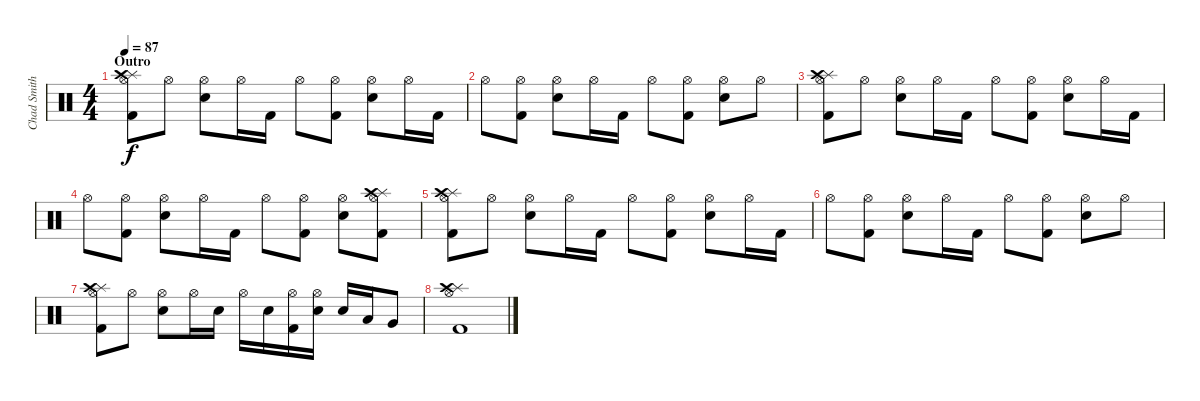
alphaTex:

\track ("Chad Smith" "Chad Smith") {instrument percussion}
\staff {score}
\articulation defaults
\ts (4 4)
\section ("" "Outro")
\tempo 87
\clef neutral
\ks c
("Splash (hit)" "Kick (hit) 2" "Hi-Hat (open)" "Crash high (hit)").8{dy f volume 14} "Hi-Hat (open)".8 ("Electric Snare (hit)" "Hi-Hat (open)").8 "Hi-Hat (open)".16 "Kick (hit) 2".16 "Hi-Hat (open)".8 ("Kick (hit) 2" "Hi-Hat (open)").8 ("Electric Snare (hit)" "Hi-Hat (open)").8 "Hi-Hat (open)".16 "Kick (hit) 2".16 |
"Hi-Hat (open)".8 ("Kick (hit) 2" "Hi-Hat (open)").8 ("Electric Snare (hit)" "Hi-Hat (open)").8 "Hi-Hat (open)".16 "Kick (hit) 2".16 "Hi-Hat (open)".8 ("Kick (hit) 2" "Hi-Hat (open)").8 ("Electric Snare (hit)" "Hi-Hat (open)").8 "Hi-Hat (open)".8 |
("Splash (hit)" "Kick (hit) 2" "Hi-Hat (open)" "Crash high (hit)").8 "Hi-Hat (open)".8 ("Electric Snare (hit)" "Hi-Hat (open)").8 "Hi-Hat (open)".16 "Kick (hit) 2".16 "Hi-Hat (open)".8 ("Kick (hit) 2" "Hi-Hat (open)").8 ("Electric Snare (hit)" "Hi-Hat (open)").8 "Hi-Hat (open)".16 "Kick (hit) 2".16 |
"Hi-Hat (open)".8 ("Kick (hit) 2" "Hi-Hat (open)").8 ("Electric Snare (hit)" "Hi-Hat (open)").8 "Hi-Hat (open)".16 "Kick (hit) 2".16 "Hi-Hat (open)".8 ("Kick (hit) 2" "Hi-Hat (open)").8 ("Electric Snare (hit)" "Hi-Hat (open)").8 ("Splash (hit)" "Kick (hit) 2" "Hi-Hat (open)" "Crash high (hit)").8 |
("Splash (hit)" "Kick (hit) 2" "Hi-Hat (open)" "Crash high (hit)").8 "Hi-Hat (open)".8 ("Electric Snare (hit)" "Hi-Hat (open)").8 "Hi-Hat (open)".16 "Kick (hit) 2".16 "Hi-Hat (open)".8 ("Kick (hit) 2" "Hi-Hat (open)").8 ("Electric Snare (hit)" "Hi-Hat (open)").8 "Hi-Hat (open)".16 "Kick (hit) 2".16 |
"Hi-Hat (open)".8 ("Kick (hit) 2" "Hi-Hat (open)").8 ("Electric Snare (hit)" "Hi-Hat (open)").8 "Hi-Hat (open)".16 "Kick (hit) 2".16 "Hi-Hat (open)".8 ("Kick (hit) 2" "Hi-Hat (open)").8 ("Electric Snare (hit)" "Hi-Hat (open)").8 "Hi-Hat (open)".8 |
("Splash (hit)" "Kick (hit) 2" "Hi-Hat (open)" "Crash high (hit)").8 "Hi-Hat (open)".8 ("Electric Snare (hit)" "Hi-Hat (open)").8 "Hi-Hat (open)".16 "Electric Snare (hit)".16 "Hi-Hat (open)".16 "Electric Snare (hit)".16 ("Kick (hit) 2" "Hi-Hat (open)").16 ("Electric Snare (hit)" "Hi-Hat (open)").16 "Electric Snare (hit)".16 "Low Tom (hit)".16 "Very Low Tom (hit)".8 |
("Splash (hit)" "Kick (hit) 2" "Hi-Hat (open)" "Crash high (hit)").1
